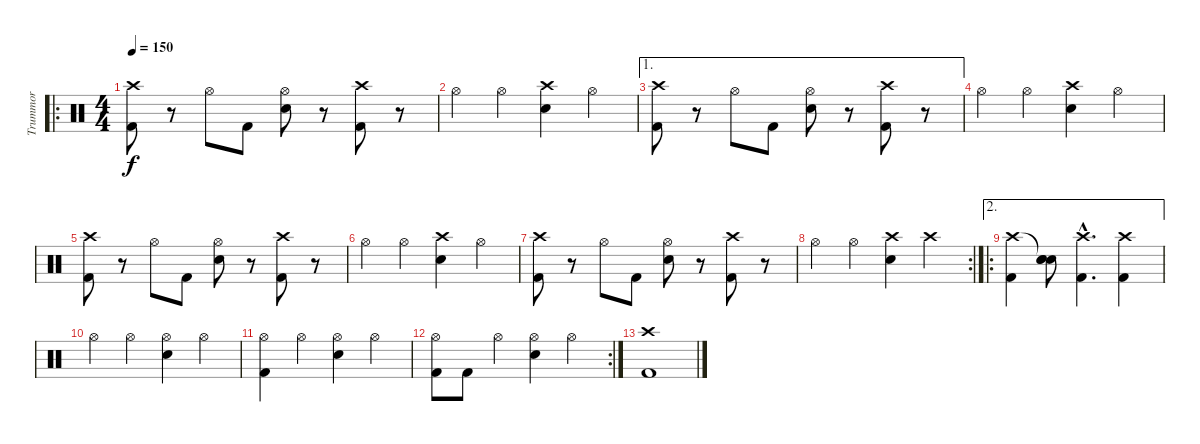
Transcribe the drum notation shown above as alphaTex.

\track ("Trummor" "Trummor") {instrument percussion}
\staff {score}
\articulation defaults
\ro
\ts (4 4)
\tempo 150
\clef neutral
\ks c
("Crash high (hit)" "Kick (hit) 2").8{dy f} r.8 "Hi-Hat (open)".8 "Kick (hit) 2".8 ("Hi-Hat (open)" "Snare (hit) 2").8 r.8 ("Crash high (hit)" "Kick (hit) 2").8 r.8 |
"Hi-Hat (open)".4 "Hi-Hat (open)".4 ("Crash high (hit)" "Snare (hit) 2").4 "Hi-Hat (open)".4 |
\ae 1
("Crash high (hit)" "Kick (hit) 2").8 r.8 "Hi-Hat (open)".8 "Kick (hit) 2".8 ("Hi-Hat (open)" "Snare (hit) 2").8 r.8 ("Crash high (hit)" "Kick (hit) 2").8 r.8 |
"Hi-Hat (open)".4 "Hi-Hat (open)".4 ("Crash high (hit)" "Snare (hit) 2").4 "Hi-Hat (open)".4 |
("Crash high (hit)" "Kick (hit) 2").8 r.8 "Hi-Hat (open)".8 "Kick (hit) 2".8 ("Hi-Hat (open)" "Snare (hit) 2").8 r.8 ("Crash high (hit)" "Kick (hit) 2").8 r.8 |
"Hi-Hat (open)".4 "Hi-Hat (open)".4 ("Crash high (hit)" "Snare (hit) 2").4 "Hi-Hat (open)".4 |
("Crash high (hit)" "Kick (hit) 2").8 r.8 "Hi-Hat (open)".8 "Kick (hit) 2".8 ("Hi-Hat (open)" "Snare (hit) 2").8 r.8 ("Crash high (hit)" "Kick (hit) 2").8 r.8 |
\rc 2 "Hi-Hat (open)".4 "Hi-Hat (open)".4
("Crash high (hit)" "Snare (hit) 2").4 "Crash high (hit)".4 |
\ae 2
\ro
("Crash high (hit)" "Kick (hit) 2").4 ("Snare (hit)"{t} "Snare (hit) 2" "Snare (hit)").8 ("Crash high (hit)"{hac} "Kick (hit) 2"{hac}).4{d} ("Crash high (hit)" "Kick (hit) 2").4 |
"Hi-Hat (open)".4 "Hi-Hat (open)".4 ("Hi-Hat (open)" "Snare (hit) 2").4 "Hi-Hat (open)".4 |
("Hi-Hat (open)" "Kick (hit) 2").4 "Hi-Hat (open)".4 ("Hi-Hat (open)" "Snare (hit) 2").4 "Hi-Hat (open)".4 |
\rc 2
("Hi-Hat (open)" "Kick (hit) 2").8 "Kick (hit) 2".8 "Hi-Hat (open)".4 ("Hi-Hat (open)" "Snare (hit) 2").4 "Hi-Hat (open)".4 |
("Crash high (hit)" "Kick (hit) 2").1
